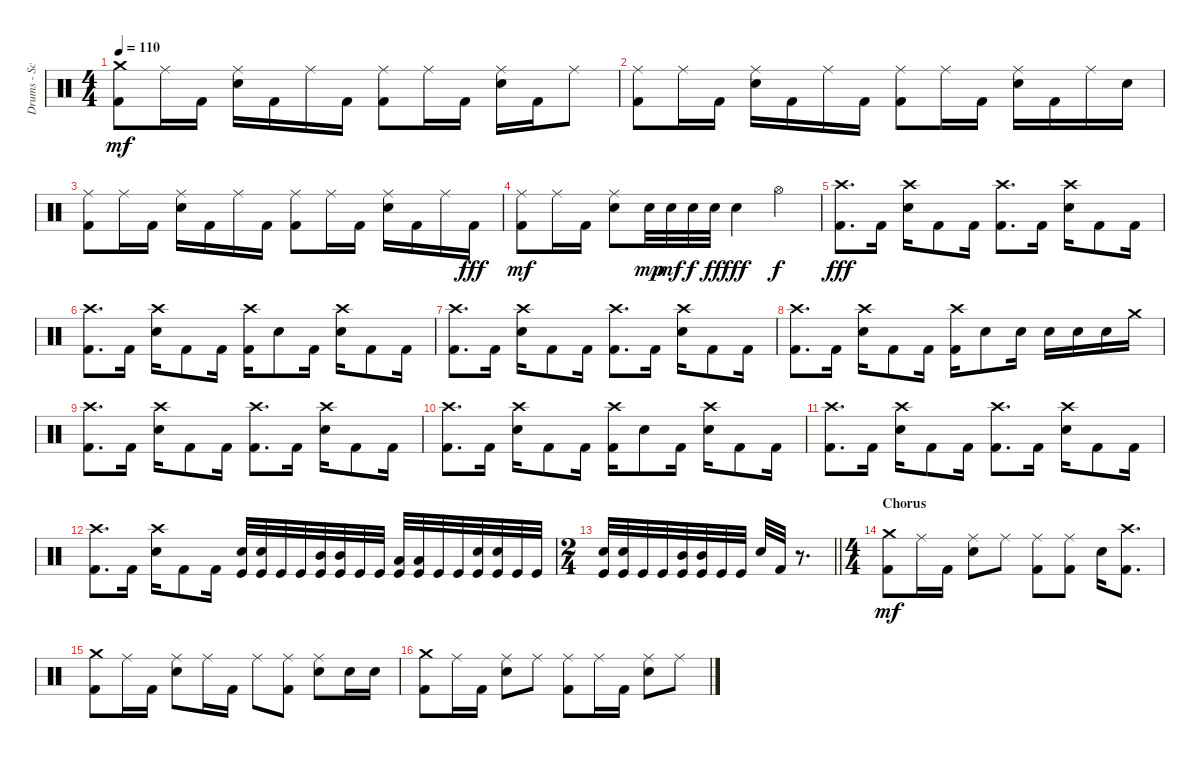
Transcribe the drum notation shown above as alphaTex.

\track ("Drums - Scott" "Drums - Sc") {instrument percussion}
\staff {score}
\articulation defaults
\ts (4 4)
\tempo 110
\clef neutral
\ks c
("Crash medium (hit)" "Kick (hit) 2").8{dy mf} "Ride (middle)".16 "Kick (hit) 2".16 ("Ride (middle)" "Electric Snare (hit)").16 "Kick (hit) 2".16 "Ride (middle)".16 "Kick (hit) 2".16 ("Ride (middle)" "Kick (hit) 2").8 "Ride (middle)".16 "Kick (hit) 2".16 ("Ride (middle)" "Electric Snare (hit)").16 "Kick (hit) 2".16 "Ride (middle)".8 |
("Ride (middle)" "Kick (hit) 2").8 "Ride (middle)".16 "Kick (hit) 2".16 ("Ride (middle)" "Electric Snare (hit)").16 "Kick (hit) 2".16 "Ride (middle)".16 "Kick (hit) 2".16 ("Ride (middle)" "Kick (hit) 2").8 "Ride (middle)".16 "Kick (hit) 2".16 ("Ride (middle)" "Electric Snare (hit)").16 "Kick (hit) 2".16 "Ride (middle)".16 "Electric Snare (hit)".16 |
("Ride (middle)" "Kick (hit) 2").8 "Ride (middle)".16 "Kick (hit) 2".16 ("Ride (middle)" "Electric Snare (hit)").16 "Kick (hit) 2".16 "Ride (middle)".16 "Kick (hit) 2".16 ("Ride (middle)" "Kick (hit) 2").8 "Ride (middle)".16 "Kick (hit) 2".16 ("Ride (middle)" "Electric Snare (hit)").16 "Kick (hit) 2".16 "Ride (middle)".16 "Kick (hit) 2".16{dy fff} |
("Ride (middle)" "Kick (hit) 2").8{dy mf} "Ride (middle)".16 "Kick (hit) 2".16 ("Ride (middle)" "Electric Snare (hit)").8 "Electric Snare (hit)".32{dy mp} "Electric Snare (hit)".32{dy mf} "Electric Snare (hit)".32{dy f} "Electric Snare (hit)".32{dy ff} "Electric Snare (hit)".4{dy fff} "Hi-Hat (open)".4{dy f} |
("Crash high (hit)" "Kick (hit) 2").8{d dy fff} "Kick (hit) 2".16 ("Crash high (hit)" "Electric Snare (hit)").16 "Kick (hit) 2".8 "Kick (hit) 2".16 ("Crash high (hit)" "Kick (hit) 2").8{d} "Kick (hit) 2".16 ("Crash high (hit)" "Electric Snare (hit)").16 "Kick (hit) 2".8 "Kick (hit) 2".16 |
("Crash high (hit)" "Kick (hit) 2").8{d} "Kick (hit) 2".16 ("Crash high (hit)" "Electric Snare (hit)").16 "Kick (hit) 2".8 "Kick (hit) 2".16 ("Crash high (hit)" "Kick (hit) 2").16 "Electric Snare (hit)".8 "Kick (hit) 2".16 ("Crash high (hit)" "Electric Snare (hit)").16 "Kick (hit) 2".8 "Kick (hit) 2".16 |
("Crash high (hit)" "Kick (hit) 2").8{d} "Kick (hit) 2".16 ("Crash high (hit)" "Electric Snare (hit)").16 "Kick (hit) 2".8 "Kick (hit) 2".16 ("Crash high (hit)" "Kick (hit) 2").8{d} "Kick (hit) 2".16 ("Crash high (hit)" "Electric Snare (hit)").16 "Kick (hit) 2".8 "Kick (hit) 2".16 |
("Crash high (hit)" "Kick (hit) 2").8{d} "Kick (hit) 2".16 ("Crash high (hit)" "Electric Snare (hit)").16 "Kick (hit) 2".8 "Kick (hit) 2".16 ("Crash high (hit)" "Kick (hit) 2").16 "Electric Snare (hit)".8 "Electric Snare (hit)".16 "Electric Snare (hit)".16 "Electric Snare (hit)".16 "Electric Snare (hit)".16 "Crash medium (hit)".16 |
("Crash high (hit)" "Kick (hit) 2").8{d} "Kick (hit) 2".16 ("Crash high (hit)" "Electric Snare (hit)").16 "Kick (hit) 2".8 "Kick (hit) 2".16 ("Crash high (hit)" "Kick (hit) 2").8{d} "Kick (hit) 2".16 ("Crash high (hit)" "Electric Snare (hit)").16 "Kick (hit) 2".8 "Kick (hit) 2".16 |
("Crash high (hit)" "Kick (hit) 2").8{d} "Kick (hit) 2".16 ("Crash high (hit)" "Electric Snare (hit)").16 "Kick (hit) 2".8 "Kick (hit) 2".16 ("Crash high (hit)" "Kick (hit) 2").16 "Electric Snare (hit)".8 "Kick (hit) 2".16 ("Crash high (hit)" "Electric Snare (hit)").16 "Kick (hit) 2".8 "Kick (hit) 2".16 |
("Crash high (hit)" "Kick (hit) 2").8{d} "Kick (hit) 2".16 ("Crash high (hit)" "Electric Snare (hit)").16 "Kick (hit) 2".8 "Kick (hit) 2".16 ("Crash high (hit)" "Kick (hit) 2").8{d} "Kick (hit) 2".16 ("Crash high (hit)" "Electric Snare (hit)").16 "Kick (hit) 2".8 "Kick (hit) 2".16 |
("Crash high (hit)" "Kick (hit) 2").8{d} "Kick (hit) 2".16 ("Crash high (hit)" "Electric Snare (hit)").16 "Kick (hit) 2".8 "Kick (hit) 2".16 ("Electric Snare (hit)" "Kick (hit)").32 ("Electric Snare (hit)" "Kick (hit)").32 "Kick (hit)".32 "Kick (hit)".32 ("Mid Tom (hit)" "Kick (hit)").32 ("Mid Tom (hit)" "Kick (hit)").32 "Kick (hit)".32 "Kick (hit)".32 ("Low Tom (hit)" "Kick (hit)").32 ("Low Tom (hit)" "Kick (hit)").32 "Kick (hit)".32 "Kick (hit)".32 ("Electric Snare (hit)" "Kick (hit)").32 ("Electric Snare (hit)" "Kick (hit)").32 "Kick (hit)".32 "Kick (hit)".32 |
\ts (2 4)
\barLineRight lightlight
("Electric Snare (hit)" "Kick (hit)").32 ("Electric Snare (hit)" "Kick (hit)").32 "Kick (hit)".32 "Kick (hit)".32 ("Mid Tom (hit)" "Kick (hit)").32 ("Mid Tom (hit)" "Kick (hit)").32 "Kick (hit)".32 "Kick (hit)".32 "Electric Snare (hit)".32 "Kick (hit) 2".32 r.8{d} |
\ts (4 4)
\section ("" "Chorus")
("Crash medium (hit)" "Kick (hit) 2").8{dy mf} "Ride (middle)".16 "Kick (hit) 2".16 ("Ride (middle)" "Electric Snare (hit)").8 "Ride (middle)".8 ("Ride (middle)" "Kick (hit) 2").8 ("Ride (middle)" "Kick (hit) 2").8 "Electric Snare (hit)".16 ("Crash high (hit)" "Kick (hit) 2").8{d} |
("Crash medium (hit)" "Kick (hit) 2").8 "Ride (middle)".16 "Kick (hit) 2".16 ("Ride (middle)" "Electric Snare (hit)").8 "Ride (middle)".16 "Kick (hit) 2".16 "Ride (middle)".8 ("Ride (middle)" "Kick (hit) 2").8 ("Ride (middle)" "Electric Snare (hit)").8 "Electric Snare (hit)".16 "Electric Snare (hit)".16 |
("Crash medium (hit)" "Kick (hit) 2").8 "Ride (middle)".16 "Kick (hit) 2".16 ("Ride (middle)" "Electric Snare (hit)").8 "Ride (middle)".8 ("Ride (middle)" "Kick (hit) 2").8 "Ride (middle)".16 "Kick (hit) 2".16 ("Ride (middle)" "Electric Snare (hit)").8 "Ride (middle)".8
